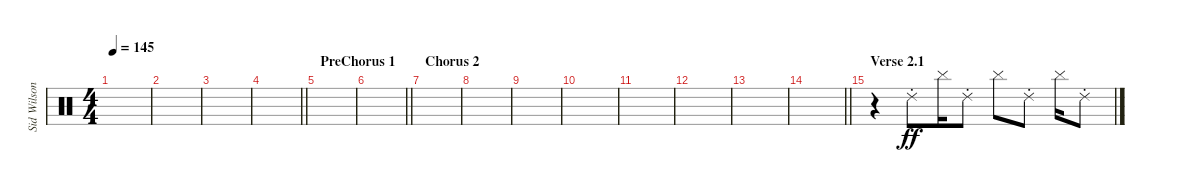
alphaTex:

\track ("Sid Wilson" "Sid Wilson") {instrument percussion}
\staff {score}
\articulation defaults
\ts (4 4)
\tempo 145
\clef neutral
\ks c
|
|
|
\barLineRight lightlight
|
\section ("" "PreChorus 1")
|
\barLineRight lightlight
|
\section ("" "Chorus 2")
|
|
|
|
|
|
|
\barLineRight lightlight
|
\section ("" "Verse 2.1")
r.4 "Ride (choke) 2".8{dy ff} "Cymbal (hit)".16 "Ride (choke) 2".8 "Cymbal (hit)".8 "Ride (choke) 2".8 "Cymbal (hit)".16 "Ride (choke) 2".8
